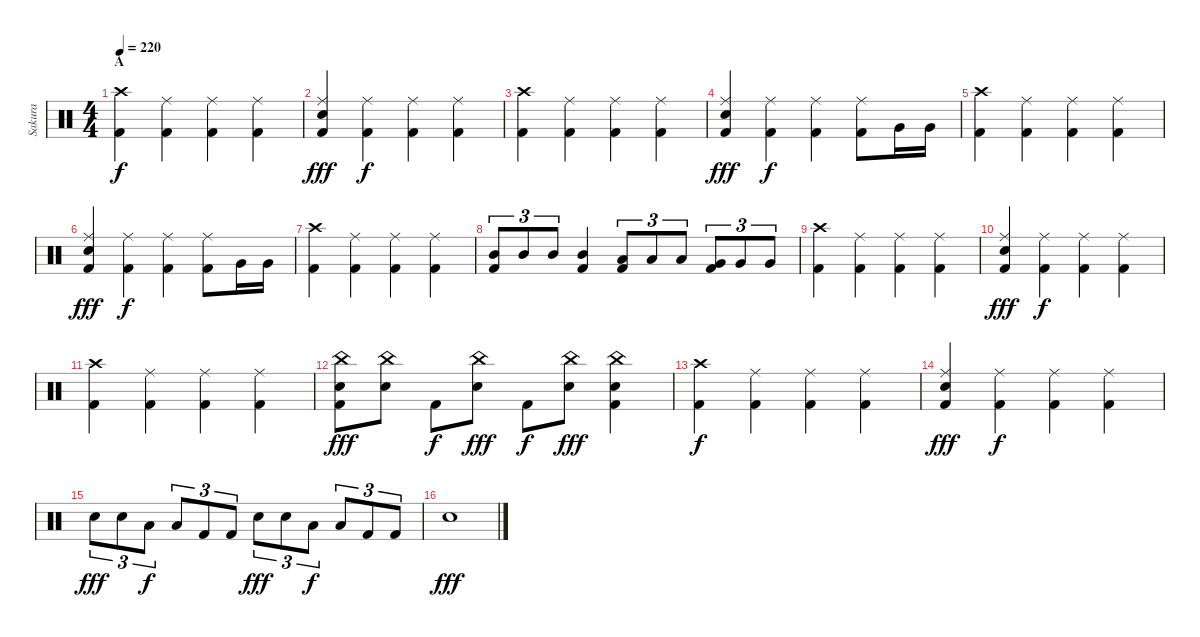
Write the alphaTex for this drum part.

\track ("Sakura" "Sakura") {instrument percussion}
\staff {score}
\articulation defaults
\ts (4 4)
\section ("" "A")
\tempo 220
\clef neutral
\ks c
("Crash high (hit)" "Kick (hit) 2").4{dy f} ("Ride (middle)" "Kick (hit) 2").4 ("Ride (middle)" "Kick (hit) 2").4 ("Ride (middle)" "Kick (hit) 2").4 |
("Ride (middle)" "Electric Snare (hit)" "Kick (hit) 2").4{dy fff} ("Ride (middle)" "Kick (hit) 2").4{dy f} ("Ride (middle)" "Kick (hit) 2").4 ("Ride (middle)" "Kick (hit) 2").4 |
("Crash high (hit)" "Kick (hit) 2").4 ("Ride (middle)" "Kick (hit) 2").4 ("Ride (middle)" "Kick (hit) 2").4 ("Ride (middle)" "Kick (hit) 2").4 |
("Ride (middle)" "Electric Snare (hit)" "Kick (hit) 2").4{dy fff} ("Ride (middle)" "Kick (hit) 2").4{dy f} ("Ride (middle)" "Kick (hit) 2").4 ("Ride (middle)" "Kick (hit) 2").8 "Very Low Tom (hit)".16 "Very Low Tom (hit)".16 |
("Crash high (hit)" "Kick (hit) 2").4 ("Ride (middle)" "Kick (hit) 2").4 ("Ride (middle)" "Kick (hit) 2").4 ("Ride (middle)" "Kick (hit) 2").4 |
("Ride (middle)" "Electric Snare (hit)" "Kick (hit) 2").4{dy fff} ("Ride (middle)" "Kick (hit) 2").4{dy f} ("Ride (middle)" "Kick (hit) 2").4 ("Ride (middle)" "Kick (hit) 2").8 "Very Low Tom (hit)".16 "Very Low Tom (hit)".16 |
("Crash high (hit)" "Kick (hit) 2").4 ("Ride (middle)" "Kick (hit) 2").4 ("Ride (middle)" "Kick (hit) 2").4 ("Ride (middle)" "Kick (hit) 2").4 |
("Mid Tom (hit)" "Kick (hit) 2").8{tu (3 2)} "Mid Tom (hit)".8{tu (3 2)} "Mid Tom (hit)".8{tu (3 2)} ("Mid Tom (hit)" "Kick (hit) 2").4 ("Low Tom (hit)" "Kick (hit) 2").8{tu (3 2)} "Low Tom (hit)".8{tu (3 2)} "Low Tom (hit)".8{tu (3 2)} ("Very Low Tom (hit)" "Kick (hit) 2").8{tu (3 2)} "Very Low Tom (hit)".8{tu (3 2)} "Very Low Tom (hit)".8{tu (3 2)} |
("Crash high (hit)" "Kick (hit) 2").4 ("Ride (middle)" "Kick (hit) 2").4 ("Ride (middle)" "Kick (hit) 2").4 ("Ride (middle)" "Kick (hit) 2").4 |
("Ride (middle)" "Electric Snare (hit)" "Kick (hit) 2").4{dy fff} ("Ride (middle)" "Kick (hit) 2").4{dy f} ("Ride (middle)" "Kick (hit) 2").4 ("Ride (middle)" "Kick (hit) 2").4 |
("Crash high (hit)" "Kick (hit) 2").4 ("Ride (middle)" "Kick (hit) 2").4 ("Ride (middle)" "Kick (hit) 2").4 ("Ride (middle)" "Kick (hit) 2").4 |
("China (hit)" "Electric Snare (hit)" "Kick (hit) 2").8{dy fff} ("China (hit)" "Electric Snare (hit)").8 "Kick (hit) 2".8{dy f} ("China (hit)" "Electric Snare (hit)").8{dy fff} "Kick (hit) 2".8{dy f} ("China (hit)" "Electric Snare (hit)").8{dy fff} ("China (hit)" "Electric Snare (hit)" "Kick (hit) 2").4 |
("Crash high (hit)" "Kick (hit) 2").4{dy f} ("Ride (middle)" "Kick (hit) 2").4 ("Ride (middle)" "Kick (hit) 2").4 ("Ride (middle)" "Kick (hit) 2").4 |
("Ride (middle)" "Electric Snare (hit)" "Kick (hit) 2").4{dy fff} ("Ride (middle)" "Kick (hit) 2").4{dy f} ("Ride (middle)" "Kick (hit) 2").4 ("Ride (middle)" "Kick (hit) 2").4 |
"Electric Snare (hit)".8{tu (3 2) dy fff} "Electric Snare (hit)".8{tu (3 2)} "Low Tom (hit)".8{tu (3 2) dy f} "Low Tom (hit)".8{tu (3 2)} "Kick (hit) 2".8{tu (3 2)} "Kick (hit) 2".8{tu (3 2)} "Electric Snare (hit)".8{tu (3 2) dy fff} "Electric Snare (hit)".8{tu (3 2)} "Low Tom (hit)".8{tu (3 2) dy f} "Low Tom (hit)".8{tu (3 2)} "Kick (hit) 2".8{tu (3 2)} "Kick (hit) 2".8{tu (3 2)} |
"Electric Snare (hit)".1{dy fff}
